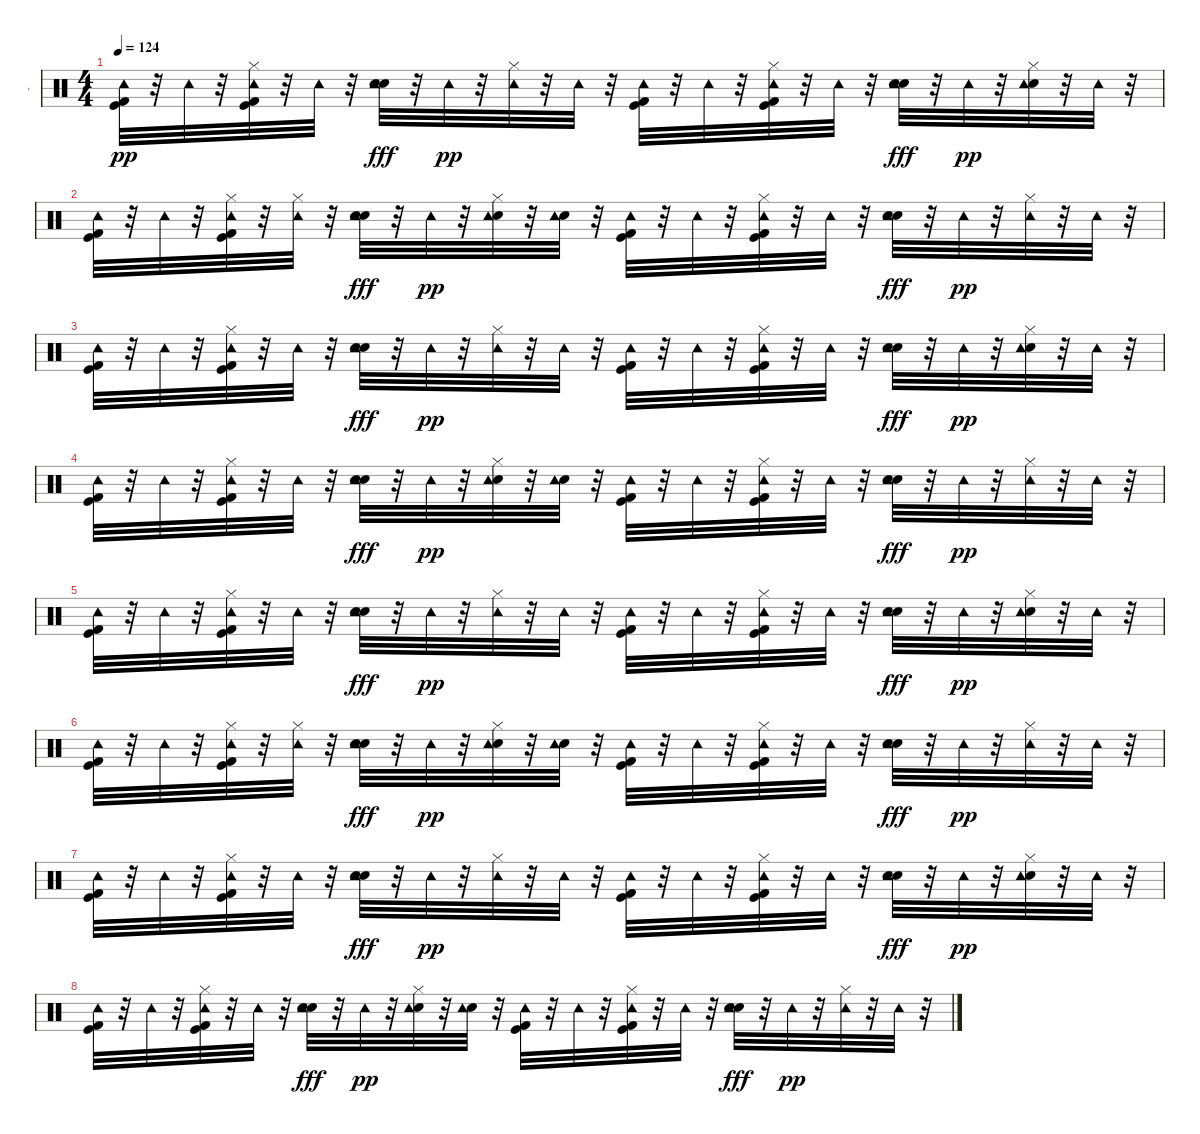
\track ("-" "-") {instrument percussion}
\staff {score}
\articulation defaults
\ts (4 4)
\tempo 124
\clef neutral
\ks c
("Kick (hit)" "Kick (hit) 2" "Tambourine (hit)").32{dy pp} r.32 "Tambourine (hit)".32 r.32 ("Kick (hit)" "Kick (hit) 2" "Hi-Hat (closed)" "Tambourine (hit)").32 r.32 "Tambourine (hit)".32 r.32 ("Snare (hit) 2" "Hand Clap (hit)" "Tambourine (hit)").32{dy fff} r.32 "Tambourine (hit)".32{dy pp} r.32 ("Hi-Hat (closed)" "Tambourine (hit)").32 r.32 "Tambourine (hit)".32 r.32 ("Kick (hit)" "Kick (hit) 2" "Tambourine (hit)").32 r.32 "Tambourine (hit)".32 r.32 ("Kick (hit)" "Kick (hit) 2" "Hi-Hat (closed)" "Tambourine (hit)").32 r.32 "Tambourine (hit)".32 r.32 ("Snare (hit) 2" "Hand Clap (hit)" "Tambourine (hit)").32{dy fff} r.32 "Tambourine (hit)".32{dy pp} r.32 ("Hand Clap (hit)" "Hi-Hat (closed)" "Tambourine (hit)").32 r.32 "Tambourine (hit)".32 r.32 |
("Kick (hit)" "Kick (hit) 2" "Tambourine (hit)").32 r.32 "Tambourine (hit)".32 r.32 ("Kick (hit)" "Kick (hit) 2" "Hi-Hat (closed)" "Tambourine (hit)").32 r.32 ("Hi-Hat (closed)" "Tambourine (hit)").32 r.32 ("Snare (hit) 2" "Hand Clap (hit)" "Tambourine (hit)").32{dy fff} r.32 "Tambourine (hit)".32{dy pp} r.32 ("Snare (hit) 2" "Hi-Hat (closed)" "Tambourine (hit)").32 r.32 ("Snare (hit) 2" "Tambourine (hit)").32 r.32 ("Kick (hit)" "Kick (hit) 2" "Tambourine (hit)").32 r.32 "Tambourine (hit)".32 r.32 ("Kick (hit)" "Kick (hit) 2" "Hi-Hat (closed)" "Tambourine (hit)").32 r.32 "Tambourine (hit)".32 r.32 ("Snare (hit) 2" "Hand Clap (hit)" "Tambourine (hit)").32{dy fff} r.32 "Tambourine (hit)".32{dy pp} r.32 ("Hi-Hat (closed)" "Tambourine (hit)").32 r.32 "Tambourine (hit)".32 r.32 |
("Kick (hit)" "Kick (hit) 2" "Tambourine (hit)").32 r.32 "Tambourine (hit)".32 r.32 ("Kick (hit)" "Kick (hit) 2" "Hi-Hat (closed)" "Tambourine (hit)").32 r.32 "Tambourine (hit)".32 r.32 ("Snare (hit) 2" "Hand Clap (hit)" "Tambourine (hit)").32{dy fff} r.32 "Tambourine (hit)".32{dy pp} r.32 ("Hi-Hat (closed)" "Tambourine (hit)").32 r.32 "Tambourine (hit)".32 r.32 ("Kick (hit)" "Kick (hit) 2" "Tambourine (hit)").32 r.32 "Tambourine (hit)".32 r.32 ("Kick (hit)" "Kick (hit) 2" "Hi-Hat (closed)" "Tambourine (hit)").32 r.32 "Tambourine (hit)".32 r.32 ("Snare (hit) 2" "Hand Clap (hit)" "Tambourine (hit)").32{dy fff} r.32 "Tambourine (hit)".32{dy pp} r.32 ("Hand Clap (hit)" "Hi-Hat (closed)" "Tambourine (hit)").32 r.32 "Tambourine (hit)".32 r.32 |
("Kick (hit)" "Kick (hit) 2" "Tambourine (hit)").32 r.32 "Tambourine (hit)".32 r.32 ("Kick (hit)" "Kick (hit) 2" "Hi-Hat (closed)" "Tambourine (hit)").32 r.32 "Tambourine (hit)".32 r.32 ("Snare (hit) 2" "Hand Clap (hit)" "Tambourine (hit)").32{dy fff} r.32 "Tambourine (hit)".32{dy pp} r.32 ("Snare (hit) 2" "Hi-Hat (closed)" "Tambourine (hit)").32 r.32 ("Snare (hit) 2" "Tambourine (hit)").32 r.32 ("Kick (hit)" "Kick (hit) 2" "Tambourine (hit)").32 r.32 "Tambourine (hit)".32 r.32 ("Kick (hit)" "Kick (hit) 2" "Hi-Hat (closed)" "Tambourine (hit)").32 r.32 "Tambourine (hit)".32 r.32 ("Snare (hit) 2" "Hand Clap (hit)" "Tambourine (hit)").32{dy fff} r.32 "Tambourine (hit)".32{dy pp} r.32 ("Hi-Hat (closed)" "Tambourine (hit)").32 r.32 "Tambourine (hit)".32 r.32 |
("Kick (hit)" "Kick (hit) 2" "Tambourine (hit)").32 r.32 "Tambourine (hit)".32 r.32 ("Kick (hit)" "Kick (hit) 2" "Hi-Hat (closed)" "Tambourine (hit)").32 r.32 "Tambourine (hit)".32 r.32 ("Snare (hit) 2" "Hand Clap (hit)" "Tambourine (hit)").32{dy fff} r.32 "Tambourine (hit)".32{dy pp} r.32 ("Hi-Hat (closed)" "Tambourine (hit)").32 r.32 "Tambourine (hit)".32 r.32 ("Kick (hit)" "Kick (hit) 2" "Tambourine (hit)").32 r.32 "Tambourine (hit)".32 r.32 ("Kick (hit)" "Kick (hit) 2" "Hi-Hat (closed)" "Tambourine (hit)").32 r.32 "Tambourine (hit)".32 r.32 ("Snare (hit) 2" "Hand Clap (hit)" "Tambourine (hit)").32{dy fff} r.32 "Tambourine (hit)".32{dy pp} r.32 ("Hand Clap (hit)" "Hi-Hat (closed)" "Tambourine (hit)").32 r.32 "Tambourine (hit)".32 r.32 |
("Kick (hit)" "Kick (hit) 2" "Tambourine (hit)").32 r.32 "Tambourine (hit)".32 r.32 ("Kick (hit)" "Kick (hit) 2" "Hi-Hat (closed)" "Tambourine (hit)").32 r.32 ("Hi-Hat (closed)" "Tambourine (hit)").32 r.32 ("Snare (hit) 2" "Hand Clap (hit)" "Tambourine (hit)").32{dy fff} r.32 "Tambourine (hit)".32{dy pp} r.32 ("Snare (hit) 2" "Hi-Hat (closed)" "Tambourine (hit)").32 r.32 ("Snare (hit) 2" "Tambourine (hit)").32 r.32 ("Kick (hit)" "Kick (hit) 2" "Tambourine (hit)").32 r.32 "Tambourine (hit)".32 r.32 ("Kick (hit)" "Kick (hit) 2" "Hi-Hat (closed)" "Tambourine (hit)").32 r.32 "Tambourine (hit)".32 r.32 ("Snare (hit) 2" "Hand Clap (hit)" "Tambourine (hit)").32{dy fff} r.32 "Tambourine (hit)".32{dy pp} r.32 ("Hi-Hat (closed)" "Tambourine (hit)").32 r.32 "Tambourine (hit)".32 r.32 |
("Kick (hit)" "Kick (hit) 2" "Tambourine (hit)").32 r.32 "Tambourine (hit)".32 r.32 ("Kick (hit)" "Kick (hit) 2" "Hi-Hat (closed)" "Tambourine (hit)").32 r.32 "Tambourine (hit)".32 r.32 ("Snare (hit) 2" "Hand Clap (hit)" "Tambourine (hit)").32{dy fff} r.32 "Tambourine (hit)".32{dy pp} r.32 ("Hi-Hat (closed)" "Tambourine (hit)").32 r.32 "Tambourine (hit)".32 r.32 ("Kick (hit)" "Kick (hit) 2" "Tambourine (hit)").32 r.32 "Tambourine (hit)".32 r.32 ("Kick (hit)" "Kick (hit) 2" "Hi-Hat (closed)" "Tambourine (hit)").32 r.32 "Tambourine (hit)".32 r.32 ("Snare (hit) 2" "Hand Clap (hit)" "Tambourine (hit)").32{dy fff} r.32 "Tambourine (hit)".32{dy pp} r.32 ("Hand Clap (hit)" "Hi-Hat (closed)" "Tambourine (hit)").32 r.32 "Tambourine (hit)".32 r.32 |
("Kick (hit)" "Kick (hit) 2" "Tambourine (hit)").32 r.32 "Tambourine (hit)".32 r.32 ("Kick (hit)" "Kick (hit) 2" "Hi-Hat (closed)" "Tambourine (hit)").32 r.32 "Tambourine (hit)".32 r.32 ("Snare (hit) 2" "Hand Clap (hit)" "Tambourine (hit)").32{dy fff} r.32 "Tambourine (hit)".32{dy pp} r.32 ("Snare (hit) 2" "Hi-Hat (closed)" "Tambourine (hit)").32 r.32 ("Snare (hit) 2" "Tambourine (hit)").32 r.32 ("Kick (hit)" "Kick (hit) 2" "Tambourine (hit)").32 r.32 "Tambourine (hit)".32 r.32 ("Kick (hit)" "Kick (hit) 2" "Hi-Hat (closed)" "Tambourine (hit)").32 r.32 "Tambourine (hit)".32 r.32 ("Snare (hit) 2" "Hand Clap (hit)" "Tambourine (hit)").32{dy fff} r.32 "Tambourine (hit)".32{dy pp} r.32 ("Hi-Hat (closed)" "Tambourine (hit)").32 r.32 "Tambourine (hit)".32 r.32
